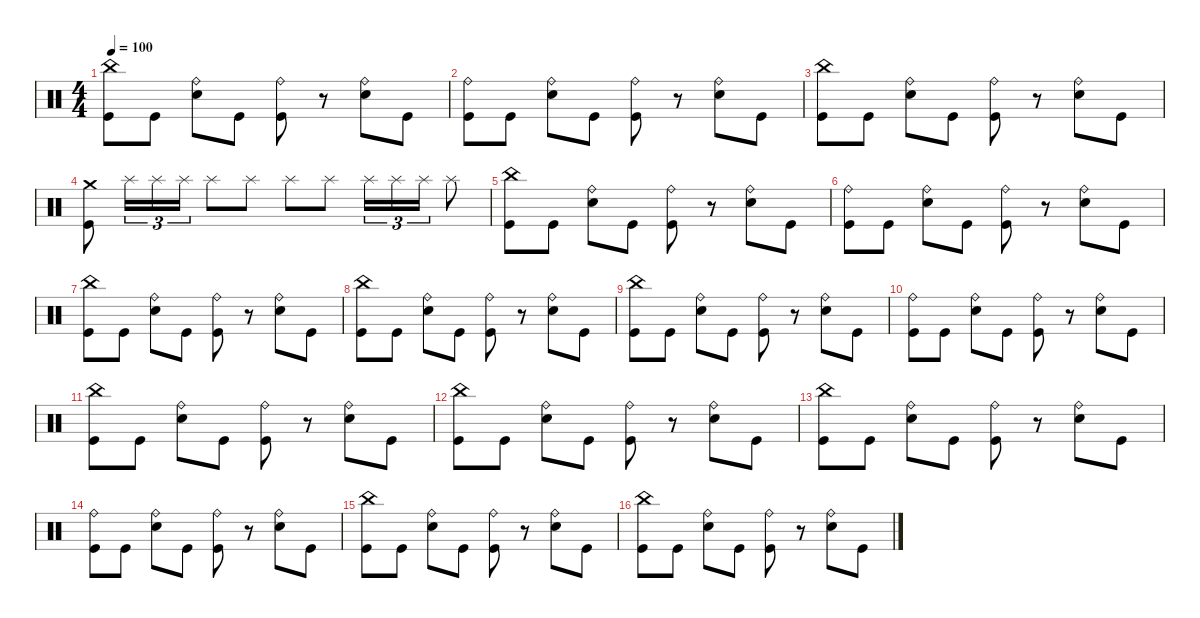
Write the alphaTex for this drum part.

\defaultSystemsLayout 4
\hideDynamics
\bracketExtendMode nobrackets
\singleTrackTrackNamePolicy hidden
\multiTrackTrackNamePolicy hidden
\firstSystemTrackNameMode fullname
\otherSystemsTrackNameOrientation horizontal
\track ("Drumkit" "drm.") {instrument percussion}
\staff {score}
\articulation defaults
\ts (4 4)
\tempo 100
\clef neutral
\ks c
("Kick (hit)" "China (hit)").8{dy mf beam Down} "Kick (hit)".8{beam Down} ("Snare (hit) 2" "Ride (bell)").8{beam Down} "Kick (hit)".8{beam Down} ("Kick (hit)" "Ride (bell)").8{beam Down} r.8{beam Down} ("Snare (hit) 2" "Ride (bell)").8{beam Down} "Kick (hit)".8{beam Down} |
("Kick (hit)" "Ride (bell)").8{beam Down} "Kick (hit)".8{beam Down} ("Snare (hit) 2" "Ride (bell)").8{beam Down} "Kick (hit)".8{beam Down} ("Kick (hit)" "Ride (bell)").8{beam Down} r.8{beam Down} ("Snare (hit) 2" "Ride (bell)").8{beam Down} "Kick (hit)".8{beam Down} |
("Kick (hit)" "China (hit)").8{beam Down} "Kick (hit)".8{beam Down} ("Snare (hit) 2" "Ride (bell)").8{beam Down} "Kick (hit)".8{beam Down} ("Kick (hit)" "Ride (bell)").8{beam Down} r.8{beam Down} ("Snare (hit) 2" "Ride (bell)").8{beam Down} "Kick (hit)".8{beam Down} |
("Crash medium (hit)" "Kick (hit)").8{beam Down} "Splash (hit)".16{tu (3 2) beam Down} "Splash (hit)".16{tu (3 2) beam Down} "Splash (hit)".16{tu (3 2) beam Down} "Splash (hit)".8{beam Down} "Splash (hit)".8{beam Down} "Splash (hit)".8{beam Down} "Splash (hit)".8{beam Down} "Splash (hit)".16{tu (3 2) beam Down} "Splash (hit)".16{tu (3 2) beam Down} "Splash (hit)".16{tu (3 2) beam Down} "Splash (hit)".8{beam Down} |
("Kick (hit)" "China (hit)").8{beam Down} "Kick (hit)".8{beam Down} ("Snare (hit) 2" "Ride (bell)").8{beam Down} "Kick (hit)".8{beam Down} ("Kick (hit)" "Ride (bell)").8{beam Down} r.8{beam Down} ("Snare (hit) 2" "Ride (bell)").8{beam Down} "Kick (hit)".8{beam Down} |
("Kick (hit)" "Ride (bell)").8{beam Down} "Kick (hit)".8{beam Down} ("Snare (hit) 2" "Ride (bell)").8{beam Down} "Kick (hit)".8{beam Down} ("Kick (hit)" "Ride (bell)").8{beam Down} r.8{beam Down} ("Snare (hit) 2" "Ride (bell)").8{beam Down} "Kick (hit)".8{beam Down} |
("Kick (hit)" "China (hit)").8{beam Down} "Kick (hit)".8{beam Down} ("Snare (hit) 2" "Ride (bell)").8{beam Down} "Kick (hit)".8{beam Down} ("Kick (hit)" "Ride (bell)").8{beam Down} r.8{beam Down} ("Snare (hit) 2" "Ride (bell)").8{beam Down} "Kick (hit)".8{beam Down} |
("Kick (hit)" "China (hit)").8{beam Down} "Kick (hit)".8{beam Down} ("Snare (hit) 2" "Ride (bell)").8{beam Down} "Kick (hit)".8{beam Down} ("Kick (hit)" "Ride (bell)").8{beam Down} r.8{beam Down} ("Snare (hit) 2" "Ride (bell)").8{beam Down} "Kick (hit)".8{beam Down} |
("Kick (hit)" "China (hit)").8{beam Down} "Kick (hit)".8{beam Down} ("Snare (hit) 2" "Ride (bell)").8{beam Down} "Kick (hit)".8{beam Down} ("Kick (hit)" "Ride (bell)").8{beam Down} r.8{beam Down} ("Snare (hit) 2" "Ride (bell)").8{beam Down} "Kick (hit)".8{beam Down} |
("Kick (hit)" "Ride (bell)").8{beam Down} "Kick (hit)".8{beam Down} ("Snare (hit) 2" "Ride (bell)").8{beam Down} "Kick (hit)".8{beam Down} ("Kick (hit)" "Ride (bell)").8{beam Down} r.8{beam Down} ("Snare (hit) 2" "Ride (bell)").8{beam Down} "Kick (hit)".8{beam Down} |
("Kick (hit)" "China (hit)").8{beam Down} "Kick (hit)".8{beam Down} ("Snare (hit) 2" "Ride (bell)").8{beam Down} "Kick (hit)".8{beam Down} ("Kick (hit)" "Ride (bell)").8{beam Down} r.8{beam Down} ("Snare (hit) 2" "Ride (bell)").8{beam Down} "Kick (hit)".8{beam Down} |
("Kick (hit)" "China (hit)").8{beam Down} "Kick (hit)".8{beam Down} ("Snare (hit) 2" "Ride (bell)").8{beam Down} "Kick (hit)".8{beam Down} ("Kick (hit)" "Ride (bell)").8{beam Down} r.8{beam Down} ("Snare (hit) 2" "Ride (bell)").8{beam Down} "Kick (hit)".8{beam Down} |
("Kick (hit)" "China (hit)").8{beam Down} "Kick (hit)".8{beam Down} ("Snare (hit) 2" "Ride (bell)").8{beam Down} "Kick (hit)".8{beam Down} ("Kick (hit)" "Ride (bell)").8{beam Down} r.8{beam Down} ("Snare (hit) 2" "Ride (bell)").8{beam Down} "Kick (hit)".8{beam Down} |
("Kick (hit)" "Ride (bell)").8{beam Down} "Kick (hit)".8{beam Down} ("Snare (hit) 2" "Ride (bell)").8{beam Down} "Kick (hit)".8{beam Down} ("Kick (hit)" "Ride (bell)").8{beam Down} r.8{beam Down} ("Snare (hit) 2" "Ride (bell)").8{beam Down} "Kick (hit)".8{beam Down} |
("Kick (hit)" "China (hit)").8{beam Down} "Kick (hit)".8{beam Down} ("Snare (hit) 2" "Ride (bell)").8{beam Down} "Kick (hit)".8{beam Down} ("Kick (hit)" "Ride (bell)").8{beam Down} r.8{beam Down} ("Snare (hit) 2" "Ride (bell)").8{beam Down} "Kick (hit)".8{beam Down} |
("Kick (hit)" "China (hit)").8{beam Down} "Kick (hit)".8{beam Down} ("Snare (hit) 2" "Ride (bell)").8{beam Down} "Kick (hit)".8{beam Down} ("Kick (hit)" "Ride (bell)").8{beam Down} r.8{beam Down} ("Snare (hit) 2" "Ride (bell)").8{beam Down} "Kick (hit)".8{beam Down}
